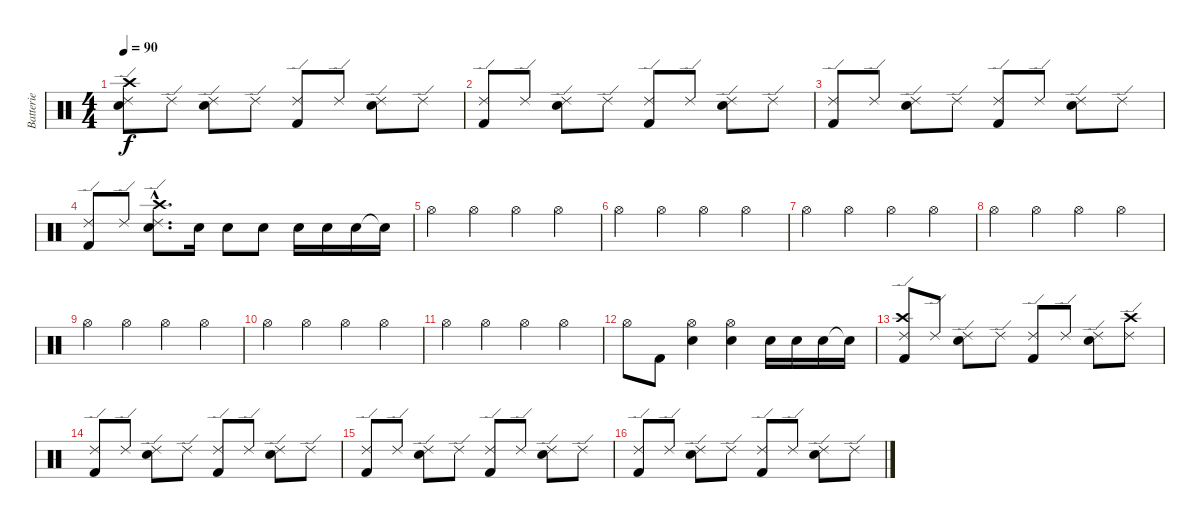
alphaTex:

\track ("Batterie" "Batterie") {instrument percussion}
\staff {score}
\articulation defaults
\ts (4 4)
\tempo 90
\clef neutral
\ks c
("Ride (edge) 2" "Electric Snare (hit)" "Crash high (hit)").8{dy f} "Ride (edge) 2".8 ("Ride (edge) 2" "Electric Snare (hit)").8 "Ride (edge) 2".8 ("Ride (edge) 2" "Kick (hit) 2").8 "Ride (edge) 2".8 ("Ride (edge) 2" "Electric Snare (hit)").8 "Ride (edge) 2".8 |
("Ride (edge) 2" "Kick (hit) 2").8 "Ride (edge) 2".8 ("Ride (edge) 2" "Electric Snare (hit)").8 "Ride (edge) 2".8 ("Ride (edge) 2" "Kick (hit) 2").8 "Ride (edge) 2".8 ("Ride (edge) 2" "Electric Snare (hit)").8 "Ride (edge) 2".8 |
("Ride (edge) 2" "Kick (hit) 2").8 "Ride (edge) 2".8 ("Ride (edge) 2" "Electric Snare (hit)").8 "Ride (edge) 2".8 ("Ride (edge) 2" "Kick (hit) 2").8 "Ride (edge) 2".8 ("Ride (edge) 2" "Electric Snare (hit)").8 "Ride (edge) 2".8 |
("Ride (edge) 2" "Kick (hit) 2").8 "Ride (edge) 2".8 ("Ride (edge) 2"{hac} "Electric Snare (hit)"{hac} "Crash high (hit)"{hac}).8{d} "Electric Snare (hit)".16 "Electric Snare (hit)".8 "Electric Snare (hit)".8 "Electric Snare (hit)".16 "Electric Snare (hit)".16 "Electric Snare (hit)".16 "Snare (hit)"{t}.16 |
"Hi-Hat (open)".4 "Hi-Hat (open)".4 "Hi-Hat (open)".4 "Hi-Hat (open)".4 |
"Hi-Hat (open)".4 "Hi-Hat (open)".4 "Hi-Hat (open)".4 "Hi-Hat (open)".4 |
"Hi-Hat (open)".4 "Hi-Hat (open)".4 "Hi-Hat (open)".4 "Hi-Hat (open)".4 |
"Hi-Hat (open)".4 "Hi-Hat (open)".4 "Hi-Hat (open)".4 "Hi-Hat (open)".4 |
"Hi-Hat (open)".4 "Hi-Hat (open)".4 "Hi-Hat (open)".4 "Hi-Hat (open)".4 |
"Hi-Hat (open)".4 "Hi-Hat (open)".4 "Hi-Hat (open)".4 "Hi-Hat (open)".4 |
"Hi-Hat (open)".4 "Hi-Hat (open)".4 "Hi-Hat (open)".4 "Hi-Hat (open)".4 |
"Hi-Hat (open)".8 "Kick (hit) 2".8 ("Hi-Hat (open)" "Electric Snare (hit)").4 ("Hi-Hat (open)" "Electric Snare (hit)").4 "Electric Snare (hit)".16 "Electric Snare (hit)".16 "Electric Snare (hit)".16 "Snare (hit)"{t}.16 |
("Ride (edge) 2" "Kick (hit) 2" "Crash high (hit)").8 "Ride (edge) 2".8 ("Ride (edge) 2" "Electric Snare (hit)").8 "Ride (edge) 2".8 ("Ride (edge) 2" "Kick (hit) 2").8 "Ride (edge) 2".8 ("Ride (edge) 2" "Electric Snare (hit)").8 ("Ride (edge) 2" "Crash high (hit)").8 |
("Ride (edge) 2" "Kick (hit) 2").8 "Ride (edge) 2".8 ("Ride (edge) 2" "Electric Snare (hit)").8 "Ride (edge) 2".8 ("Ride (edge) 2" "Kick (hit) 2").8 "Ride (edge) 2".8 ("Ride (edge) 2" "Electric Snare (hit)").8 "Ride (edge) 2".8 |
("Ride (edge) 2" "Kick (hit) 2").8 "Ride (edge) 2".8 ("Ride (edge) 2" "Electric Snare (hit)").8 "Ride (edge) 2".8 ("Ride (edge) 2" "Kick (hit) 2").8 "Ride (edge) 2".8 ("Ride (edge) 2" "Electric Snare (hit)").8 "Ride (edge) 2".8 |
("Ride (edge) 2" "Kick (hit) 2").8 "Ride (edge) 2".8 ("Ride (edge) 2" "Electric Snare (hit)").8 "Ride (edge) 2".8 ("Ride (edge) 2" "Kick (hit) 2").8 "Ride (edge) 2".8 ("Ride (edge) 2" "Electric Snare (hit)").8 "Ride (edge) 2".8
